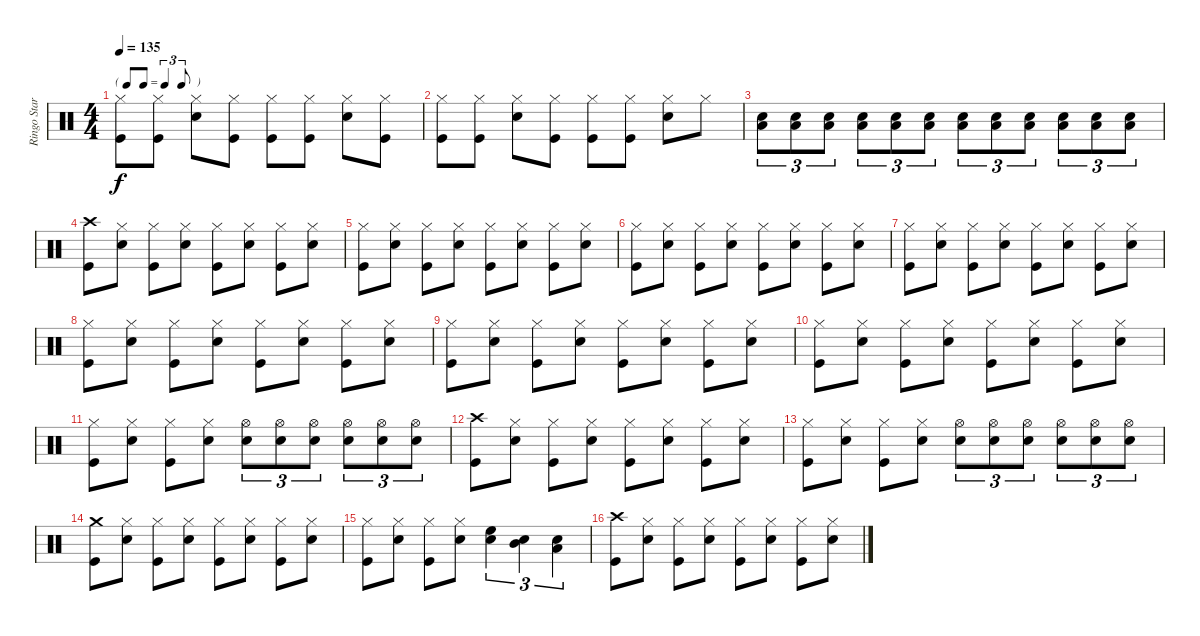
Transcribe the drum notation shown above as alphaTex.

\track ("Ringo Star" "Ringo Star") {instrument percussion}
\staff {score}
\articulation defaults
\ts (4 4)
\tf triplet8th
\tempo 135
\clef neutral
\ks c
("Hi-Hat (closed)" "Kick (hit)").8{dy f} ("Hi-Hat (closed)" "Kick (hit)").8 ("Hi-Hat (closed)" "Snare (hit) 2").8 ("Hi-Hat (closed)" "Kick (hit)").8 ("Hi-Hat (closed)" "Kick (hit)").8 ("Hi-Hat (closed)" "Kick (hit)").8 ("Hi-Hat (closed)" "Snare (hit) 2").8 ("Hi-Hat (closed)" "Kick (hit)").8 |
("Hi-Hat (closed)" "Kick (hit)").8 ("Hi-Hat (closed)" "Kick (hit)").8 ("Hi-Hat (closed)" "Snare (hit) 2").8 ("Hi-Hat (closed)" "Kick (hit)").8 ("Hi-Hat (closed)" "Kick (hit)").8 ("Hi-Hat (closed)" "Kick (hit)").8 ("Hi-Hat (closed)" "Snare (hit) 2").8 "Hi-Hat (closed)".8 |
("Snare (hit) 2" "Low Tom (hit)").8{tu (3 2)} ("Snare (hit) 2" "Low Tom (hit)").8{tu (3 2)} ("Snare (hit) 2" "Low Tom (hit)").8{tu (3 2)} ("Snare (hit) 2" "Low Tom (hit)").8{tu (3 2)} ("Snare (hit) 2" "Low Tom (hit)").8{tu (3 2)} ("Snare (hit) 2" "Low Tom (hit)").8{tu (3 2)} ("Snare (hit) 2" "Low Tom (hit)").8{tu (3 2)} ("Snare (hit) 2" "Low Tom (hit)").8{tu (3 2)} ("Snare (hit) 2" "Low Tom (hit)").8{tu (3 2)} ("Snare (hit) 2" "Low Tom (hit)").8{tu (3 2)} ("Snare (hit) 2" "Low Tom (hit)").8{tu (3 2)} ("Snare (hit) 2" "Low Tom (hit)").8{tu (3 2)} |
("Crash high (hit)" "Kick (hit)").8 ("Hi-Hat (closed)" "Snare (hit) 2").8 ("Hi-Hat (closed)" "Kick (hit)").8 ("Hi-Hat (closed)" "Snare (hit) 2").8 ("Hi-Hat (closed)" "Kick (hit)").8 ("Hi-Hat (closed)" "Snare (hit) 2").8 ("Hi-Hat (closed)" "Kick (hit)").8 ("Hi-Hat (closed)" "Snare (hit) 2").8 |
("Hi-Hat (closed)" "Kick (hit)").8 ("Hi-Hat (closed)" "Snare (hit) 2").8 ("Hi-Hat (closed)" "Kick (hit)").8 ("Hi-Hat (closed)" "Snare (hit) 2").8 ("Hi-Hat (closed)" "Kick (hit)").8 ("Hi-Hat (closed)" "Snare (hit) 2").8 ("Hi-Hat (closed)" "Kick (hit)").8 ("Hi-Hat (closed)" "Snare (hit) 2").8 |
("Hi-Hat (closed)" "Kick (hit)").8 ("Hi-Hat (closed)" "Snare (hit) 2").8 ("Hi-Hat (closed)" "Kick (hit)").8 ("Hi-Hat (closed)" "Snare (hit) 2").8 ("Hi-Hat (closed)" "Kick (hit)").8 ("Hi-Hat (closed)" "Snare (hit) 2").8 ("Hi-Hat (closed)" "Kick (hit)").8 ("Hi-Hat (closed)" "Snare (hit) 2").8 |
("Hi-Hat (closed)" "Kick (hit)").8 ("Hi-Hat (closed)" "Snare (hit) 2").8 ("Hi-Hat (closed)" "Kick (hit)").8 ("Hi-Hat (closed)" "Snare (hit) 2").8 ("Hi-Hat (closed)" "Kick (hit)").8 ("Hi-Hat (closed)" "Snare (hit) 2").8 ("Hi-Hat (closed)" "Kick (hit)").8 ("Hi-Hat (closed)" "Snare (hit) 2").8 |
("Hi-Hat (closed)" "Kick (hit)").8 ("Hi-Hat (closed)" "Snare (hit) 2").8 ("Hi-Hat (closed)" "Kick (hit)").8 ("Hi-Hat (closed)" "Snare (hit) 2").8 ("Hi-Hat (closed)" "Kick (hit)").8 ("Hi-Hat (closed)" "Snare (hit) 2").8 ("Hi-Hat (closed)" "Kick (hit)").8 ("Hi-Hat (closed)" "Snare (hit) 2").8 |
("Hi-Hat (closed)" "Kick (hit)").8 ("Hi-Hat (closed)" "Snare (hit) 2").8 ("Hi-Hat (closed)" "Kick (hit)").8 ("Hi-Hat (closed)" "Snare (hit) 2").8 ("Hi-Hat (closed)" "Kick (hit)").8 ("Hi-Hat (closed)" "Snare (hit) 2").8 ("Hi-Hat (closed)" "Kick (hit)").8 ("Hi-Hat (closed)" "Snare (hit) 2").8 |
("Hi-Hat (closed)" "Kick (hit)").8 ("Hi-Hat (closed)" "Snare (hit) 2").8 ("Hi-Hat (closed)" "Kick (hit)").8 ("Hi-Hat (closed)" "Snare (hit) 2").8 ("Hi-Hat (closed)" "Kick (hit)").8 ("Hi-Hat (closed)" "Snare (hit) 2").8 ("Hi-Hat (closed)" "Kick (hit)").8 ("Hi-Hat (closed)" "Snare (hit) 2").8 |
("Hi-Hat (closed)" "Kick (hit)").8 ("Hi-Hat (closed)" "Snare (hit) 2").8 ("Hi-Hat (closed)" "Kick (hit)").8 ("Hi-Hat (closed)" "Snare (hit) 2").8 ("Hi-Hat (open)" "Snare (hit) 2").8{tu (3 2)} ("Hi-Hat (open)" "Snare (hit) 2").8{tu (3 2)} ("Hi-Hat (open)" "Snare (hit) 2").8{tu (3 2)} ("Hi-Hat (open)" "Snare (hit) 2").8{tu (3 2)} ("Hi-Hat (open)" "Snare (hit) 2").8{tu (3 2)} ("Hi-Hat (open)" "Snare (hit) 2").8{tu (3 2)} |
("Crash high (hit)" "Kick (hit)").8 ("Hi-Hat (closed)" "Snare (hit) 2").8 ("Hi-Hat (closed)" "Kick (hit)").8 ("Hi-Hat (closed)" "Snare (hit) 2").8 ("Hi-Hat (closed)" "Kick (hit)").8 ("Hi-Hat (closed)" "Snare (hit) 2").8 ("Hi-Hat (closed)" "Kick (hit)").8 ("Hi-Hat (closed)" "Snare (hit) 2").8 |
("Hi-Hat (closed)" "Kick (hit)").8 ("Hi-Hat (closed)" "Snare (hit) 2").8 ("Hi-Hat (closed)" "Kick (hit)").8 ("Hi-Hat (closed)" "Snare (hit) 2").8 ("Hi-Hat (open)" "Snare (hit) 2").8{tu (3 2)} ("Hi-Hat (open)" "Snare (hit) 2").8{tu (3 2)} ("Hi-Hat (open)" "Snare (hit) 2").8{tu (3 2)} ("Hi-Hat (open)" "Snare (hit) 2").8{tu (3 2)} ("Hi-Hat (open)" "Snare (hit) 2").8{tu (3 2)} ("Hi-Hat (open)" "Snare (hit) 2").8{tu (3 2)} |
("Crash medium (hit)" "Kick (hit)").8 ("Hi-Hat (closed)" "Snare (hit) 2").8 ("Hi-Hat (closed)" "Kick (hit)").8 ("Hi-Hat (closed)" "Snare (hit) 2").8 ("Hi-Hat (closed)" "Kick (hit)").8 ("Hi-Hat (closed)" "Snare (hit) 2").8 ("Hi-Hat (closed)" "Kick (hit)").8 ("Hi-Hat (closed)" "Snare (hit) 2").8 |
("Hi-Hat (closed)" "Kick (hit)").8 ("Hi-Hat (closed)" "Snare (hit) 2").8 ("Hi-Hat (closed)" "Kick (hit)").8 ("Hi-Hat (closed)" "Snare (hit) 2").8 ("High Floor Tom (hit)" "Snare (hit) 2").4{tu (3 2)} ("Mid Tom (hit)" "Snare (hit) 2").4{tu (3 2)} ("Snare (hit) 2" "Low Tom (hit)").4{tu (3 2)} |
("Crash high (hit)" "Kick (hit)").8 ("Hi-Hat (closed)" "Snare (hit) 2").8 ("Hi-Hat (closed)" "Kick (hit)").8 ("Hi-Hat (closed)" "Snare (hit) 2").8 ("Hi-Hat (closed)" "Kick (hit)").8 ("Hi-Hat (closed)" "Snare (hit) 2").8 ("Hi-Hat (closed)" "Kick (hit)").8 ("Hi-Hat (closed)" "Snare (hit) 2").8
